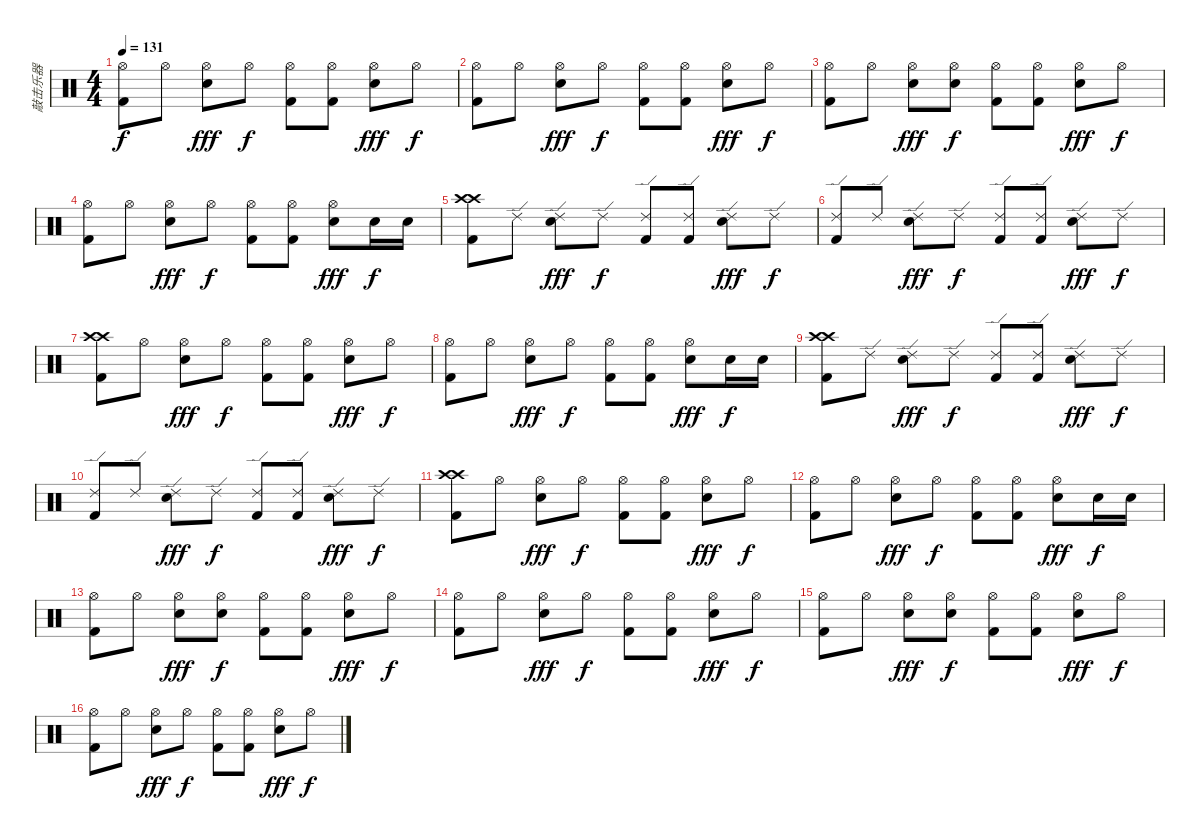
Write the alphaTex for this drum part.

\track ("敲击乐器" "敲击乐器") {instrument percussion}
\staff {score}
\articulation defaults
\ts (4 4)
\tempo 131
\clef neutral
\ks c
("Hi-Hat (open)" "Kick (hit) 2").8{dy f} "Hi-Hat (open)".8 ("Hi-Hat (open)" "Electric Snare (hit)").8{dy fff} "Hi-Hat (open)".8{dy f} ("Hi-Hat (open)" "Kick (hit) 2").8 ("Hi-Hat (open)" "Kick (hit) 2").8 ("Hi-Hat (open)" "Electric Snare (hit)").8{dy fff} "Hi-Hat (open)".8{dy f} |
("Hi-Hat (open)" "Kick (hit) 2").8 "Hi-Hat (open)".8 ("Hi-Hat (open)" "Electric Snare (hit)").8{dy fff} "Hi-Hat (open)".8{dy f} ("Hi-Hat (open)" "Kick (hit) 2").8 ("Hi-Hat (open)" "Kick (hit) 2").8 ("Hi-Hat (open)" "Electric Snare (hit)").8{dy fff} "Hi-Hat (open)".8{dy f} |
("Hi-Hat (open)" "Kick (hit) 2").8 "Hi-Hat (open)".8 ("Hi-Hat (open)" "Electric Snare (hit)").8{dy fff} ("Hi-Hat (open)" "Electric Snare (hit)").8{dy f} ("Hi-Hat (open)" "Kick (hit) 2").8 ("Hi-Hat (open)" "Kick (hit) 2").8 ("Hi-Hat (open)" "Electric Snare (hit)").8{dy fff} "Hi-Hat (open)".8{dy f} |
("Hi-Hat (open)" "Kick (hit) 2").8 "Hi-Hat (open)".8 ("Hi-Hat (open)" "Electric Snare (hit)").8{dy fff} "Hi-Hat (open)".8{dy f} ("Hi-Hat (open)" "Kick (hit) 2").8 ("Hi-Hat (open)" "Kick (hit) 2").8 ("Hi-Hat (open)" "Electric Snare (hit)").8{dy fff} "Electric Snare (hit)".16{dy f} "Electric Snare (hit)".16 |
("Crash high (hit)" "Kick (hit) 2" "Crash high (hit)").8 "Ride (edge) 2".8 ("Ride (edge) 2" "Electric Snare (hit)").8{dy fff} "Ride (edge) 2".8{dy f} ("Ride (edge) 2" "Kick (hit) 2").8 ("Ride (edge) 2" "Kick (hit) 2").8 ("Ride (edge) 2" "Electric Snare (hit)").8{dy fff} "Ride (edge) 2".8{dy f} |
("Ride (edge) 2" "Kick (hit) 2").8 "Ride (edge) 2".8 ("Ride (edge) 2" "Electric Snare (hit)").8{dy fff} "Ride (edge) 2".8{dy f} ("Ride (edge) 2" "Kick (hit) 2").8 ("Ride (edge) 2" "Kick (hit) 2").8 ("Ride (edge) 2" "Electric Snare (hit)").8{dy fff} "Ride (edge) 2".8{dy f} |
("Crash high (hit)" "Kick (hit) 2" "Crash high (hit)").8 "Hi-Hat (open)".8 ("Hi-Hat (open)" "Snare (hit) 2").8{dy fff} "Hi-Hat (open)".8{dy f} ("Hi-Hat (open)" "Kick (hit) 2").8 ("Hi-Hat (open)" "Kick (hit) 2").8 ("Hi-Hat (open)" "Snare (hit) 2").8{dy fff} "Hi-Hat (open)".8{dy f} |
("Hi-Hat (open)" "Kick (hit) 2").8 "Hi-Hat (open)".8 ("Hi-Hat (open)" "Electric Snare (hit)").8{dy fff} "Hi-Hat (open)".8{dy f} ("Hi-Hat (open)" "Kick (hit) 2").8 ("Hi-Hat (open)" "Kick (hit) 2").8 ("Hi-Hat (open)" "Electric Snare (hit)").8{dy fff} "Electric Snare (hit)".16{dy f} "Electric Snare (hit)".16 |
("Crash high (hit)" "Kick (hit) 2" "Crash high (hit)").8 "Ride (edge) 2".8 ("Ride (edge) 2" "Electric Snare (hit)").8{dy fff} "Ride (edge) 2".8{dy f} ("Ride (edge) 2" "Kick (hit) 2").8 ("Ride (edge) 2" "Kick (hit) 2").8 ("Ride (edge) 2" "Electric Snare (hit)").8{dy fff} "Ride (edge) 2".8{dy f} |
("Ride (edge) 2" "Kick (hit) 2").8 "Ride (edge) 2".8 ("Ride (edge) 2" "Electric Snare (hit)").8{dy fff} "Ride (edge) 2".8{dy f} ("Ride (edge) 2" "Kick (hit) 2").8 ("Ride (edge) 2" "Kick (hit) 2").8 ("Ride (edge) 2" "Electric Snare (hit)").8{dy fff} "Ride (edge) 2".8{dy f} |
("Crash high (hit)" "Kick (hit) 2" "Crash high (hit)").8 "Hi-Hat (open)".8 ("Hi-Hat (open)" "Electric Snare (hit)").8{dy fff} "Hi-Hat (open)".8{dy f} ("Hi-Hat (open)" "Kick (hit) 2").8 ("Hi-Hat (open)" "Kick (hit) 2").8 ("Hi-Hat (open)" "Electric Snare (hit)").8{dy fff} "Hi-Hat (open)".8{dy f} |
("Hi-Hat (open)" "Kick (hit) 2").8 "Hi-Hat (open)".8 ("Hi-Hat (open)" "Electric Snare (hit)").8{dy fff} "Hi-Hat (open)".8{dy f} ("Hi-Hat (open)" "Kick (hit) 2").8 ("Hi-Hat (open)" "Kick (hit) 2").8 ("Hi-Hat (open)" "Electric Snare (hit)").8{dy fff} "Electric Snare (hit)".16{dy f} "Electric Snare (hit)".16 |
("Hi-Hat (open)" "Kick (hit) 2").8 "Hi-Hat (open)".8 ("Hi-Hat (open)" "Electric Snare (hit)").8{dy fff} ("Hi-Hat (open)" "Electric Snare (hit)").8{dy f} ("Hi-Hat (open)" "Kick (hit) 2").8 ("Hi-Hat (open)" "Kick (hit) 2").8 ("Hi-Hat (open)" "Electric Snare (hit)").8{dy fff} "Hi-Hat (open)".8{dy f} |
("Hi-Hat (open)" "Kick (hit) 2").8 "Hi-Hat (open)".8 ("Hi-Hat (open)" "Electric Snare (hit)").8{dy fff} "Hi-Hat (open)".8{dy f} ("Hi-Hat (open)" "Kick (hit) 2").8 ("Hi-Hat (open)" "Kick (hit) 2").8 ("Hi-Hat (open)" "Electric Snare (hit)").8{dy fff} "Hi-Hat (open)".8{dy f} |
("Hi-Hat (open)" "Kick (hit) 2").8 "Hi-Hat (open)".8 ("Hi-Hat (open)" "Electric Snare (hit)").8{dy fff} ("Hi-Hat (open)" "Electric Snare (hit)").8{dy f} ("Hi-Hat (open)" "Kick (hit) 2").8 ("Hi-Hat (open)" "Kick (hit) 2").8 ("Hi-Hat (open)" "Electric Snare (hit)").8{dy fff} "Hi-Hat (open)".8{dy f} |
("Hi-Hat (open)" "Kick (hit) 2").8 "Hi-Hat (open)".8 ("Hi-Hat (open)" "Electric Snare (hit)").8{dy fff} "Hi-Hat (open)".8{dy f} ("Hi-Hat (open)" "Kick (hit) 2").8 ("Hi-Hat (open)" "Kick (hit) 2").8 ("Hi-Hat (open)" "Electric Snare (hit)").8{dy fff} "Hi-Hat (open)".8{dy f}
